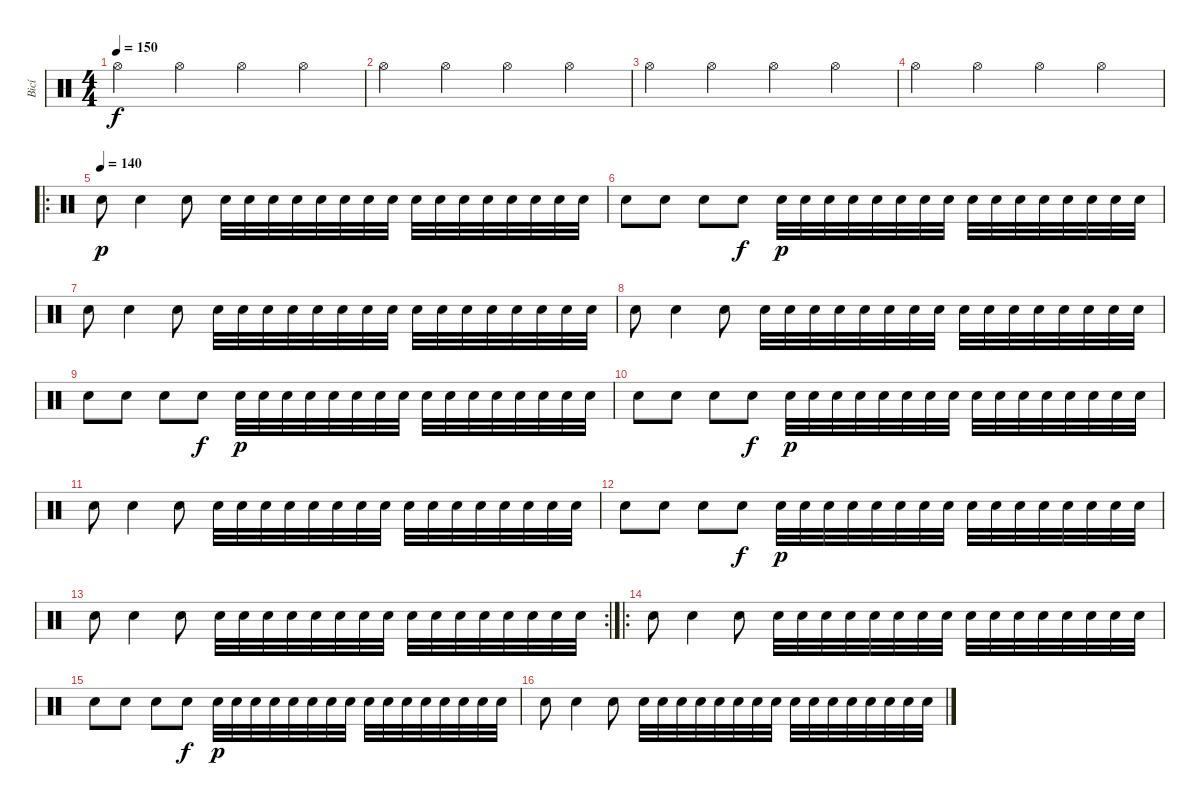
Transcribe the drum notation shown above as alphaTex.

\track ("Bicí" "Bicí") {instrument percussion}
\staff {score}
\articulation defaults
\ts (4 4)
\tempo 150
\clef neutral
\ks c "Hi-Hat (open)".4{dy f} "Hi-Hat (open)".4 "Hi-Hat (open)".4 "Hi-Hat (open)".4
|
"Hi-Hat (open)".4 "Hi-Hat (open)".4 "Hi-Hat (open)".4 "Hi-Hat (open)".4 |
"Hi-Hat (open)".4 "Hi-Hat (open)".4 "Hi-Hat (open)".4 "Hi-Hat (open)".4 |
"Hi-Hat (open)".4 "Hi-Hat (open)".4 "Hi-Hat (open)".4 "Hi-Hat (open)".4 |
\ro
\tempo 145
\tempo (140)
"Electric Snare (hit)".8{dy p} "Electric Snare (hit)".4 "Electric Snare (hit)".8 "Electric Snare (hit)".32 "Electric Snare (hit)".32 "Electric Snare (hit)".32 "Electric Snare (hit)".32 "Electric Snare (hit)".32 "Electric Snare (hit)".32 "Electric Snare (hit)".32 "Electric Snare (hit)".32 "Electric Snare (hit)".32 "Electric Snare (hit)".32 "Electric Snare (hit)".32 "Electric Snare (hit)".32 "Electric Snare (hit)".32 "Electric Snare (hit)".32 "Electric Snare (hit)".32 "Electric Snare (hit)".32 |
"Electric Snare (hit)".8 "Electric Snare (hit)".8 "Electric Snare (hit)".8 "Electric Snare (hit)".8{dy f} "Electric Snare (hit)".32{dy p} "Electric Snare (hit)".32 "Electric Snare (hit)".32 "Electric Snare (hit)".32 "Electric Snare (hit)".32 "Electric Snare (hit)".32 "Electric Snare (hit)".32 "Electric Snare (hit)".32 "Electric Snare (hit)".32 "Electric Snare (hit)".32 "Electric Snare (hit)".32 "Electric Snare (hit)".32 "Electric Snare (hit)".32 "Electric Snare (hit)".32 "Electric Snare (hit)".32 "Electric Snare (hit)".32 |
"Electric Snare (hit)".8 "Electric Snare (hit)".4 "Electric Snare (hit)".8 "Electric Snare (hit)".32 "Electric Snare (hit)".32 "Electric Snare (hit)".32 "Electric Snare (hit)".32 "Electric Snare (hit)".32 "Electric Snare (hit)".32 "Electric Snare (hit)".32 "Electric Snare (hit)".32 "Electric Snare (hit)".32 "Electric Snare (hit)".32 "Electric Snare (hit)".32 "Electric Snare (hit)".32 "Electric Snare (hit)".32 "Electric Snare (hit)".32 "Electric Snare (hit)".32 "Electric Snare (hit)".32 |
"Electric Snare (hit)".8 "Electric Snare (hit)".4 "Electric Snare (hit)".8 "Electric Snare (hit)".32 "Electric Snare (hit)".32 "Electric Snare (hit)".32 "Electric Snare (hit)".32 "Electric Snare (hit)".32 "Electric Snare (hit)".32 "Electric Snare (hit)".32 "Electric Snare (hit)".32 "Electric Snare (hit)".32 "Electric Snare (hit)".32 "Electric Snare (hit)".32 "Electric Snare (hit)".32 "Electric Snare (hit)".32 "Electric Snare (hit)".32 "Electric Snare (hit)".32 "Electric Snare (hit)".32 |
"Electric Snare (hit)".8 "Electric Snare (hit)".8 "Electric Snare (hit)".8 "Electric Snare (hit)".8{dy f} "Electric Snare (hit)".32{dy p} "Electric Snare (hit)".32 "Electric Snare (hit)".32 "Electric Snare (hit)".32 "Electric Snare (hit)".32 "Electric Snare (hit)".32 "Electric Snare (hit)".32 "Electric Snare (hit)".32 "Electric Snare (hit)".32 "Electric Snare (hit)".32 "Electric Snare (hit)".32 "Electric Snare (hit)".32 "Electric Snare (hit)".32 "Electric Snare (hit)".32 "Electric Snare (hit)".32 "Electric Snare (hit)".32 |
"Electric Snare (hit)".8 "Electric Snare (hit)".8 "Electric Snare (hit)".8 "Electric Snare (hit)".8{dy f} "Electric Snare (hit)".32{dy p} "Electric Snare (hit)".32 "Electric Snare (hit)".32 "Electric Snare (hit)".32 "Electric Snare (hit)".32 "Electric Snare (hit)".32 "Electric Snare (hit)".32 "Electric Snare (hit)".32 "Electric Snare (hit)".32 "Electric Snare (hit)".32 "Electric Snare (hit)".32 "Electric Snare (hit)".32 "Electric Snare (hit)".32 "Electric Snare (hit)".32 "Electric Snare (hit)".32 "Electric Snare (hit)".32 |
"Electric Snare (hit)".8 "Electric Snare (hit)".4 "Electric Snare (hit)".8 "Electric Snare (hit)".32 "Electric Snare (hit)".32 "Electric Snare (hit)".32 "Electric Snare (hit)".32 "Electric Snare (hit)".32 "Electric Snare (hit)".32 "Electric Snare (hit)".32 "Electric Snare (hit)".32 "Electric Snare (hit)".32 "Electric Snare (hit)".32 "Electric Snare (hit)".32 "Electric Snare (hit)".32 "Electric Snare (hit)".32 "Electric Snare (hit)".32 "Electric Snare (hit)".32 "Electric Snare (hit)".32 |
"Electric Snare (hit)".8 "Electric Snare (hit)".8 "Electric Snare (hit)".8 "Electric Snare (hit)".8{dy f} "Electric Snare (hit)".32{dy p} "Electric Snare (hit)".32 "Electric Snare (hit)".32 "Electric Snare (hit)".32 "Electric Snare (hit)".32 "Electric Snare (hit)".32 "Electric Snare (hit)".32 "Electric Snare (hit)".32 "Electric Snare (hit)".32 "Electric Snare (hit)".32 "Electric Snare (hit)".32 "Electric Snare (hit)".32 "Electric Snare (hit)".32 "Electric Snare (hit)".32 "Electric Snare (hit)".32 "Electric Snare (hit)".32 |
\rc 2 "Electric Snare (hit)".8 "Electric Snare (hit)".4 "Electric Snare (hit)".8 "Electric Snare (hit)".32 "Electric Snare (hit)".32 "Electric Snare (hit)".32 "Electric Snare (hit)".32 "Electric Snare (hit)".32 "Electric Snare (hit)".32 "Electric Snare (hit)".32 "Electric Snare (hit)".32 "Electric Snare (hit)".32 "Electric Snare (hit)".32 "Electric Snare (hit)".32 "Electric Snare (hit)".32 "Electric Snare (hit)".32 "Electric Snare (hit)".32 "Electric Snare (hit)".32 "Electric Snare (hit)".32
|
\ro "Electric Snare (hit)".8 "Electric Snare (hit)".4 "Electric Snare (hit)".8 "Electric Snare (hit)".32 "Electric Snare (hit)".32 "Electric Snare (hit)".32 "Electric Snare (hit)".32 "Electric Snare (hit)".32 "Electric Snare (hit)".32 "Electric Snare (hit)".32 "Electric Snare (hit)".32 "Electric Snare (hit)".32 "Electric Snare (hit)".32 "Electric Snare (hit)".32 "Electric Snare (hit)".32 "Electric Snare (hit)".32 "Electric Snare (hit)".32 "Electric Snare (hit)".32 "Electric Snare (hit)".32
|
"Electric Snare (hit)".8 "Electric Snare (hit)".8 "Electric Snare (hit)".8 "Electric Snare (hit)".8{dy f} "Electric Snare (hit)".32{dy p} "Electric Snare (hit)".32 "Electric Snare (hit)".32 "Electric Snare (hit)".32 "Electric Snare (hit)".32 "Electric Snare (hit)".32 "Electric Snare (hit)".32 "Electric Snare (hit)".32 "Electric Snare (hit)".32 "Electric Snare (hit)".32 "Electric Snare (hit)".32 "Electric Snare (hit)".32 "Electric Snare (hit)".32 "Electric Snare (hit)".32 "Electric Snare (hit)".32 "Electric Snare (hit)".32 |
"Electric Snare (hit)".8 "Electric Snare (hit)".4 "Electric Snare (hit)".8 "Electric Snare (hit)".32 "Electric Snare (hit)".32 "Electric Snare (hit)".32 "Electric Snare (hit)".32 "Electric Snare (hit)".32 "Electric Snare (hit)".32 "Electric Snare (hit)".32 "Electric Snare (hit)".32 "Electric Snare (hit)".32 "Electric Snare (hit)".32 "Electric Snare (hit)".32 "Electric Snare (hit)".32 "Electric Snare (hit)".32 "Electric Snare (hit)".32 "Electric Snare (hit)".32 "Electric Snare (hit)".32
